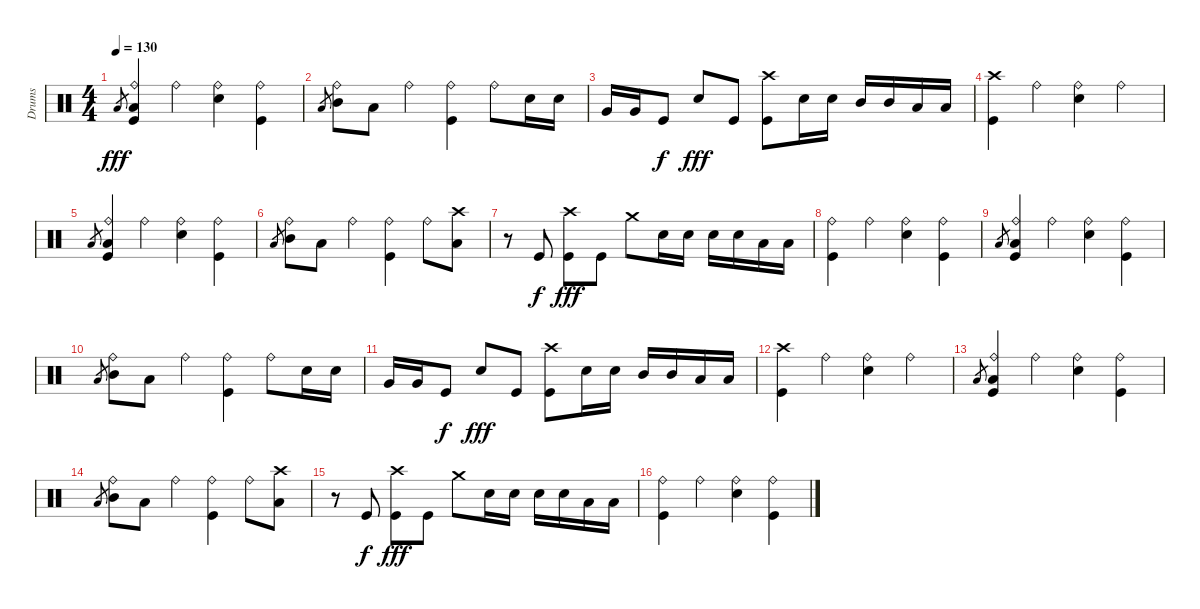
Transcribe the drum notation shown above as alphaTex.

\track ("Drums" "Drums") {instrument percussion}
\staff {score}
\articulation defaults
\ts (4 4)
\tempo 130
\clef neutral
\ks c "Low Tom (hit)".8{gr dy fff}
("Ride (bell)" "Low Tom (hit)" "Kick (hit)").4 "Ride (bell)".4 ("Ride (bell)" "Snare (hit) 2").4 ("Ride (bell)" "Kick (hit)").4 |
"Low Tom (hit)".8{gr} ("Ride (bell)" "Mid Tom (hit)").8 "Low Tom (hit)".8 "Ride (bell)".4 ("Ride (bell)" "Kick (hit)").4 "Ride (bell)".8 "Snare (hit) 2".16 "Snare (hit) 2".16 |
"Very Low Tom (hit)".16 "Very Low Tom (hit)".16 "Kick (hit)".8{dy f} "Snare (hit) 2".8{dy fff} "Kick (hit)".8 ("Crash high (hit)" "Kick (hit)").8 "Snare (hit) 2".16 "Snare (hit) 2".16 "Mid Tom (hit)".16 "Mid Tom (hit)".16 "Low Tom (hit)".16 "Low Tom (hit)".16 |
("Crash high (hit)" "Kick (hit)").4 "Ride (bell)".4 ("Ride (bell)" "Snare (hit) 2").4 "Ride (bell)".4 |
"Low Tom (hit)".8{gr} ("Ride (bell)" "Low Tom (hit)" "Kick (hit)").4 "Ride (bell)".4 ("Ride (bell)" "Snare (hit) 2").4 ("Ride (bell)" "Kick (hit)").4 |
"Low Tom (hit)".8{gr} ("Ride (bell)" "Mid Tom (hit)").8 "Low Tom (hit)".8 "Ride (bell)".4 ("Ride (bell)" "Kick (hit)").4 "Ride (bell)".8 ("Crash high (hit)" "Low Tom (hit)").8 |
r.8 "Kick (hit)".8{dy f} ("Crash high (hit)" "Kick (hit)").8{dy fff} "Kick (hit)".8 "Crash medium (hit)".8 "Snare (hit) 2".16 "Snare (hit) 2".16 "Snare (hit) 2".16 "Snare (hit) 2".16 "Low Tom (hit)".16 "Low Tom (hit)".16 |
("Ride (bell)" "Kick (hit)").4 "Ride (bell)".4 ("Ride (bell)" "Snare (hit) 2").4 ("Ride (bell)" "Kick (hit)").4 |
"Low Tom (hit)".8{gr} ("Ride (bell)" "Low Tom (hit)" "Kick (hit)").4 "Ride (bell)".4 ("Ride (bell)" "Snare (hit) 2").4 ("Ride (bell)" "Kick (hit)").4 |
"Low Tom (hit)".8{gr} ("Ride (bell)" "Mid Tom (hit)").8 "Low Tom (hit)".8 "Ride (bell)".4 ("Ride (bell)" "Kick (hit)").4 "Ride (bell)".8 "Snare (hit) 2".16 "Snare (hit) 2".16 |
"Very Low Tom (hit)".16 "Very Low Tom (hit)".16 "Kick (hit)".8{dy f} "Snare (hit) 2".8{dy fff} "Kick (hit)".8 ("Crash high (hit)" "Kick (hit)").8 "Snare (hit) 2".16 "Snare (hit) 2".16 "Mid Tom (hit)".16 "Mid Tom (hit)".16 "Low Tom (hit)".16 "Low Tom (hit)".16 |
("Crash high (hit)" "Kick (hit)").4 "Ride (bell)".4 ("Ride (bell)" "Snare (hit) 2").4 "Ride (bell)".4 |
"Low Tom (hit)".8{gr} ("Ride (bell)" "Low Tom (hit)" "Kick (hit)").4 "Ride (bell)".4 ("Ride (bell)" "Snare (hit) 2").4 ("Ride (bell)" "Kick (hit)").4 |
"Low Tom (hit)".8{gr} ("Ride (bell)" "Mid Tom (hit)").8 "Low Tom (hit)".8 "Ride (bell)".4 ("Ride (bell)" "Kick (hit)").4 "Ride (bell)".8 ("Crash high (hit)" "Low Tom (hit)").8 |
r.8 "Kick (hit)".8{dy f} ("Crash high (hit)" "Kick (hit)").8{dy fff} "Kick (hit)".8 "Crash medium (hit)".8 "Snare (hit) 2".16 "Snare (hit) 2".16 "Snare (hit) 2".16 "Snare (hit) 2".16 "Low Tom (hit)".16 "Low Tom (hit)".16 |
("Ride (bell)" "Kick (hit)").4 "Ride (bell)".4 ("Ride (bell)" "Snare (hit) 2").4 ("Ride (bell)" "Kick (hit)").4
